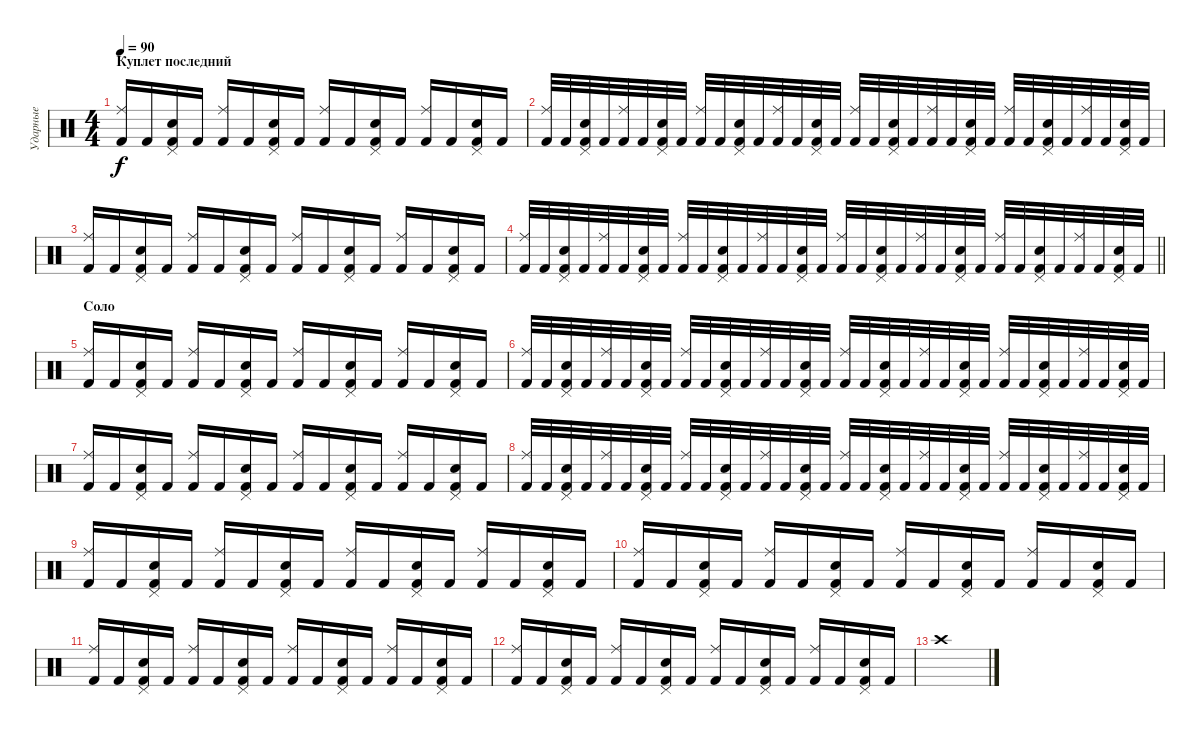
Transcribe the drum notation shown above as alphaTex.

\track ("Ударные" "Ударные") {instrument percussion}
\staff {score}
\articulation defaults
\ts (4 4)
\section ("" "Куплет последний")
\tempo 90
\clef neutral
\ks c
("Kick (hit) 2" "Ride (middle)").16{dy f} "Kick (hit) 2".16 ("Kick (hit) 2" "Snare (hit) 2" "Pedal Hi-Hat (hit)").16 "Kick (hit) 2".16 ("Kick (hit) 2" "Ride (middle)").16 "Kick (hit) 2".16 ("Kick (hit) 2" "Snare (hit) 2" "Pedal Hi-Hat (hit)").16 "Kick (hit) 2".16 ("Kick (hit) 2" "Ride (middle)").16 "Kick (hit) 2".16 ("Kick (hit) 2" "Snare (hit) 2" "Pedal Hi-Hat (hit)").16 "Kick (hit) 2".16 ("Kick (hit) 2" "Ride (middle)").16 "Kick (hit) 2".16 ("Kick (hit) 2" "Snare (hit) 2" "Pedal Hi-Hat (hit)").16 "Kick (hit) 2".16 |
("Kick (hit) 2" "Ride (middle)").32 "Kick (hit) 2".32 ("Kick (hit) 2" "Snare (hit) 2" "Pedal Hi-Hat (hit)").32 "Kick (hit) 2".32 ("Kick (hit) 2" "Ride (middle)").32 "Kick (hit) 2".32 ("Kick (hit) 2" "Snare (hit) 2" "Pedal Hi-Hat (hit)").32 "Kick (hit) 2".32 ("Kick (hit) 2" "Ride (middle)").32 "Kick (hit) 2".32 ("Kick (hit) 2" "Snare (hit) 2" "Pedal Hi-Hat (hit)").32 "Kick (hit) 2".32 ("Kick (hit) 2" "Ride (middle)").32 "Kick (hit) 2".32 ("Kick (hit) 2" "Snare (hit) 2" "Pedal Hi-Hat (hit)").32 "Kick (hit) 2".32 ("Kick (hit) 2" "Ride (middle)").32 "Kick (hit) 2".32 ("Kick (hit) 2" "Snare (hit) 2" "Pedal Hi-Hat (hit)").32 "Kick (hit) 2".32 ("Kick (hit) 2" "Ride (middle)").32 "Kick (hit) 2".32 ("Kick (hit) 2" "Snare (hit) 2" "Pedal Hi-Hat (hit)").32 "Kick (hit) 2".32 ("Kick (hit) 2" "Ride (middle)").32 "Kick (hit) 2".32 ("Kick (hit) 2" "Snare (hit) 2" "Pedal Hi-Hat (hit)").32 "Kick (hit) 2".32 ("Kick (hit) 2" "Ride (middle)").32 "Kick (hit) 2".32 ("Kick (hit) 2" "Snare (hit) 2" "Pedal Hi-Hat (hit)").32 "Kick (hit) 2".32 |
("Kick (hit) 2" "Ride (middle)").16 "Kick (hit) 2".16 ("Kick (hit) 2" "Snare (hit) 2" "Pedal Hi-Hat (hit)").16 "Kick (hit) 2".16 ("Kick (hit) 2" "Ride (middle)").16 "Kick (hit) 2".16 ("Kick (hit) 2" "Snare (hit) 2" "Pedal Hi-Hat (hit)").16 "Kick (hit) 2".16 ("Kick (hit) 2" "Ride (middle)").16 "Kick (hit) 2".16 ("Kick (hit) 2" "Snare (hit) 2" "Pedal Hi-Hat (hit)").16 "Kick (hit) 2".16 ("Kick (hit) 2" "Ride (middle)").16 "Kick (hit) 2".16 ("Kick (hit) 2" "Snare (hit) 2" "Pedal Hi-Hat (hit)").16 "Kick (hit) 2".16 |
\barLineRight lightlight
("Kick (hit) 2" "Ride (middle)").32 "Kick (hit) 2".32 ("Kick (hit) 2" "Snare (hit) 2" "Pedal Hi-Hat (hit)").32 "Kick (hit) 2".32 ("Kick (hit) 2" "Ride (middle)").32 "Kick (hit) 2".32 ("Kick (hit) 2" "Snare (hit) 2" "Pedal Hi-Hat (hit)").32 "Kick (hit) 2".32 ("Kick (hit) 2" "Ride (middle)").32 "Kick (hit) 2".32 ("Kick (hit) 2" "Snare (hit) 2" "Pedal Hi-Hat (hit)").32 "Kick (hit) 2".32 ("Kick (hit) 2" "Ride (middle)").32 "Kick (hit) 2".32 ("Kick (hit) 2" "Snare (hit) 2" "Pedal Hi-Hat (hit)").32 "Kick (hit) 2".32 ("Kick (hit) 2" "Ride (middle)").32 "Kick (hit) 2".32 ("Kick (hit) 2" "Snare (hit) 2" "Pedal Hi-Hat (hit)").32 "Kick (hit) 2".32 ("Kick (hit) 2" "Ride (middle)").32 "Kick (hit) 2".32 ("Kick (hit) 2" "Snare (hit) 2" "Pedal Hi-Hat (hit)").32 "Kick (hit) 2".32 ("Kick (hit) 2" "Ride (middle)").32 "Kick (hit) 2".32 ("Kick (hit) 2" "Snare (hit) 2" "Pedal Hi-Hat (hit)").32 "Kick (hit) 2".32 ("Kick (hit) 2" "Ride (middle)").32 "Kick (hit) 2".32 ("Kick (hit) 2" "Snare (hit) 2" "Pedal Hi-Hat (hit)").32 "Kick (hit) 2".32 |
\section ("" "Соло")
("Kick (hit) 2" "Ride (middle)").16 "Kick (hit) 2".16 ("Kick (hit) 2" "Snare (hit) 2" "Pedal Hi-Hat (hit)").16 "Kick (hit) 2".16 ("Kick (hit) 2" "Ride (middle)").16 "Kick (hit) 2".16 ("Kick (hit) 2" "Snare (hit) 2" "Pedal Hi-Hat (hit)").16 "Kick (hit) 2".16 ("Kick (hit) 2" "Ride (middle)").16 "Kick (hit) 2".16 ("Kick (hit) 2" "Snare (hit) 2" "Pedal Hi-Hat (hit)").16 "Kick (hit) 2".16 ("Kick (hit) 2" "Ride (middle)").16 "Kick (hit) 2".16 ("Kick (hit) 2" "Snare (hit) 2" "Pedal Hi-Hat (hit)").16 "Kick (hit) 2".16 |
("Kick (hit) 2" "Ride (middle)").32 "Kick (hit) 2".32 ("Kick (hit) 2" "Snare (hit) 2" "Pedal Hi-Hat (hit)").32 "Kick (hit) 2".32 ("Kick (hit) 2" "Ride (middle)").32 "Kick (hit) 2".32 ("Kick (hit) 2" "Snare (hit) 2" "Pedal Hi-Hat (hit)").32 "Kick (hit) 2".32 ("Kick (hit) 2" "Ride (middle)").32 "Kick (hit) 2".32 ("Kick (hit) 2" "Snare (hit) 2" "Pedal Hi-Hat (hit)").32 "Kick (hit) 2".32 ("Kick (hit) 2" "Ride (middle)").32 "Kick (hit) 2".32 ("Kick (hit) 2" "Snare (hit) 2" "Pedal Hi-Hat (hit)").32 "Kick (hit) 2".32 ("Kick (hit) 2" "Ride (middle)").32 "Kick (hit) 2".32 ("Kick (hit) 2" "Snare (hit) 2" "Pedal Hi-Hat (hit)").32 "Kick (hit) 2".32 ("Kick (hit) 2" "Ride (middle)").32 "Kick (hit) 2".32 ("Kick (hit) 2" "Snare (hit) 2" "Pedal Hi-Hat (hit)").32 "Kick (hit) 2".32 ("Kick (hit) 2" "Ride (middle)").32 "Kick (hit) 2".32 ("Kick (hit) 2" "Snare (hit) 2" "Pedal Hi-Hat (hit)").32 "Kick (hit) 2".32 ("Kick (hit) 2" "Ride (middle)").32 "Kick (hit) 2".32 ("Kick (hit) 2" "Snare (hit) 2" "Pedal Hi-Hat (hit)").32 "Kick (hit) 2".32 |
("Kick (hit) 2" "Ride (middle)").16 "Kick (hit) 2".16 ("Kick (hit) 2" "Snare (hit) 2" "Pedal Hi-Hat (hit)").16 "Kick (hit) 2".16 ("Kick (hit) 2" "Ride (middle)").16 "Kick (hit) 2".16 ("Kick (hit) 2" "Snare (hit) 2" "Pedal Hi-Hat (hit)").16 "Kick (hit) 2".16 ("Kick (hit) 2" "Ride (middle)").16 "Kick (hit) 2".16 ("Kick (hit) 2" "Snare (hit) 2" "Pedal Hi-Hat (hit)").16 "Kick (hit) 2".16 ("Kick (hit) 2" "Ride (middle)").16 "Kick (hit) 2".16 ("Kick (hit) 2" "Snare (hit) 2" "Pedal Hi-Hat (hit)").16 "Kick (hit) 2".16 |
("Kick (hit) 2" "Ride (middle)").32 "Kick (hit) 2".32 ("Kick (hit) 2" "Snare (hit) 2" "Pedal Hi-Hat (hit)").32 "Kick (hit) 2".32 ("Kick (hit) 2" "Ride (middle)").32 "Kick (hit) 2".32 ("Kick (hit) 2" "Snare (hit) 2" "Pedal Hi-Hat (hit)").32 "Kick (hit) 2".32 ("Kick (hit) 2" "Ride (middle)").32 "Kick (hit) 2".32 ("Kick (hit) 2" "Snare (hit) 2" "Pedal Hi-Hat (hit)").32 "Kick (hit) 2".32 ("Kick (hit) 2" "Ride (middle)").32 "Kick (hit) 2".32 ("Kick (hit) 2" "Snare (hit) 2" "Pedal Hi-Hat (hit)").32 "Kick (hit) 2".32 ("Kick (hit) 2" "Ride (middle)").32 "Kick (hit) 2".32 ("Kick (hit) 2" "Snare (hit) 2" "Pedal Hi-Hat (hit)").32 "Kick (hit) 2".32 ("Kick (hit) 2" "Ride (middle)").32 "Kick (hit) 2".32 ("Kick (hit) 2" "Snare (hit) 2" "Pedal Hi-Hat (hit)").32 "Kick (hit) 2".32 ("Kick (hit) 2" "Ride (middle)").32 "Kick (hit) 2".32 ("Kick (hit) 2" "Snare (hit) 2" "Pedal Hi-Hat (hit)").32 "Kick (hit) 2".32 ("Kick (hit) 2" "Ride (middle)").32 "Kick (hit) 2".32 ("Kick (hit) 2" "Snare (hit) 2" "Pedal Hi-Hat (hit)").32 "Kick (hit) 2".32 |
("Kick (hit) 2" "Ride (middle)").16 "Kick (hit) 2".16 ("Kick (hit) 2" "Snare (hit) 2" "Pedal Hi-Hat (hit)").16 "Kick (hit) 2".16 ("Kick (hit) 2" "Ride (middle)").16 "Kick (hit) 2".16 ("Kick (hit) 2" "Snare (hit) 2" "Pedal Hi-Hat (hit)").16 "Kick (hit) 2".16 ("Kick (hit) 2" "Ride (middle)").16 "Kick (hit) 2".16 ("Kick (hit) 2" "Snare (hit) 2" "Pedal Hi-Hat (hit)").16 "Kick (hit) 2".16 ("Kick (hit) 2" "Ride (middle)").16 "Kick (hit) 2".16 ("Kick (hit) 2" "Snare (hit) 2" "Pedal Hi-Hat (hit)").16 "Kick (hit) 2".16 |
("Kick (hit) 2" "Ride (middle)").16 "Kick (hit) 2".16 ("Kick (hit) 2" "Snare (hit) 2" "Pedal Hi-Hat (hit)").16 "Kick (hit) 2".16 ("Kick (hit) 2" "Ride (middle)").16 "Kick (hit) 2".16 ("Kick (hit) 2" "Snare (hit) 2" "Pedal Hi-Hat (hit)").16 "Kick (hit) 2".16 ("Kick (hit) 2" "Ride (middle)").16 "Kick (hit) 2".16 ("Kick (hit) 2" "Snare (hit) 2" "Pedal Hi-Hat (hit)").16 "Kick (hit) 2".16 ("Kick (hit) 2" "Ride (middle)").16 "Kick (hit) 2".16 ("Kick (hit) 2" "Snare (hit) 2" "Pedal Hi-Hat (hit)").16 "Kick (hit) 2".16 |
("Kick (hit) 2" "Ride (middle)").16 "Kick (hit) 2".16 ("Kick (hit) 2" "Snare (hit) 2" "Pedal Hi-Hat (hit)").16 "Kick (hit) 2".16 ("Kick (hit) 2" "Ride (middle)").16 "Kick (hit) 2".16 ("Kick (hit) 2" "Snare (hit) 2" "Pedal Hi-Hat (hit)").16 "Kick (hit) 2".16 ("Kick (hit) 2" "Ride (middle)").16 "Kick (hit) 2".16 ("Kick (hit) 2" "Snare (hit) 2" "Pedal Hi-Hat (hit)").16 "Kick (hit) 2".16 ("Kick (hit) 2" "Ride (middle)").16 "Kick (hit) 2".16 ("Kick (hit) 2" "Snare (hit) 2" "Pedal Hi-Hat (hit)").16 "Kick (hit) 2".16 |
("Kick (hit) 2" "Ride (middle)").16 "Kick (hit) 2".16 ("Kick (hit) 2" "Snare (hit) 2" "Pedal Hi-Hat (hit)").16 "Kick (hit) 2".16 ("Kick (hit) 2" "Ride (middle)").16 "Kick (hit) 2".16 ("Kick (hit) 2" "Snare (hit) 2" "Pedal Hi-Hat (hit)").16 "Kick (hit) 2".16 ("Kick (hit) 2" "Ride (middle)").16 "Kick (hit) 2".16 ("Kick (hit) 2" "Snare (hit) 2" "Pedal Hi-Hat (hit)").16 "Kick (hit) 2".16 ("Kick (hit) 2" "Ride (middle)").16 "Kick (hit) 2".16 ("Kick (hit) 2" "Snare (hit) 2" "Pedal Hi-Hat (hit)").16 "Kick (hit) 2".16 |
"Crash high (hit)".1
